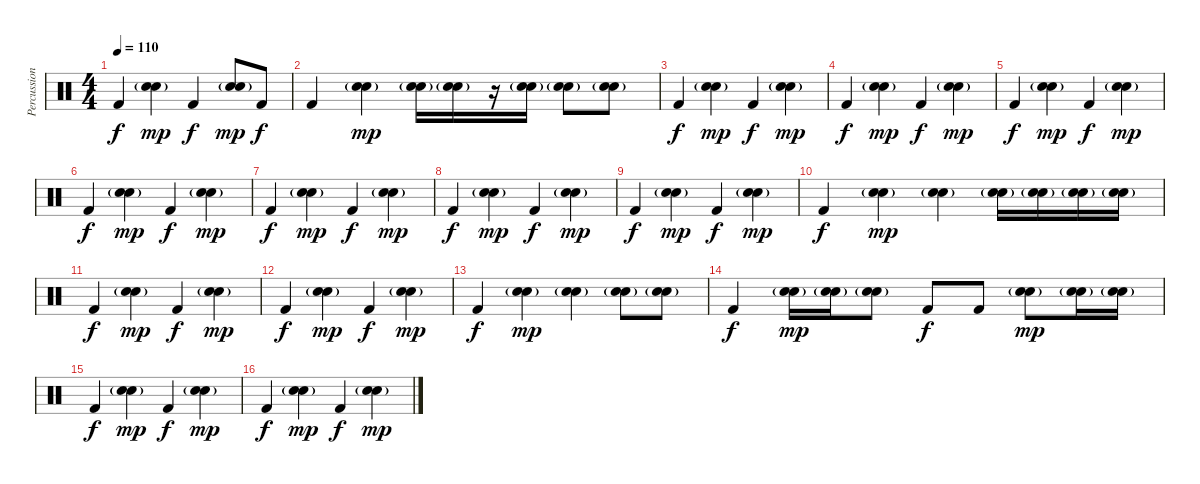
\track ("Percussion" "Percussion") {instrument percussion}
\staff {score}
\articulation defaults
\ts (4 4)
\tempo 110
\clef neutral
\ks c "Kick (hit) 2".4{dy f}
("Electric Snare (hit)" "Snare (hit) 2"{g}).4{dy mp} "Kick (hit) 2".4{dy f} ("Electric Snare (hit)" "Snare (hit) 2"{g}).8{dy mp} "Kick (hit) 2".8{dy f} |
"Kick (hit) 2".4 ("Electric Snare (hit)" "Snare (hit) 2"{g}).4{dy mp} ("Electric Snare (hit)" "Snare (hit) 2"{g}).16 ("Electric Snare (hit)"{g} "Snare (hit) 2"{g}).16 r.16 ("Electric Snare (hit)" "Snare (hit) 2"{g}).16 ("Electric Snare (hit)"{g} "Snare (hit) 2"{g}).8 ("Electric Snare (hit)" "Snare (hit) 2"{g}).8 |
"Kick (hit) 2".4{dy f} ("Electric Snare (hit)" "Snare (hit) 2"{g}).4{dy mp} "Kick (hit) 2".4{dy f} ("Electric Snare (hit)" "Snare (hit) 2"{g}).4{dy mp} |
"Kick (hit) 2".4{dy f} ("Electric Snare (hit)" "Snare (hit) 2"{g}).4{dy mp} "Kick (hit) 2".4{dy f} ("Electric Snare (hit)" "Snare (hit) 2"{g}).4{dy mp} |
"Kick (hit) 2".4{dy f} ("Electric Snare (hit)" "Snare (hit) 2"{g}).4{dy mp} "Kick (hit) 2".4{dy f} ("Electric Snare (hit)" "Snare (hit) 2"{g}).4{dy mp} |
"Kick (hit) 2".4{dy f} ("Electric Snare (hit)" "Snare (hit) 2"{g}).4{dy mp} "Kick (hit) 2".4{dy f} ("Electric Snare (hit)" "Snare (hit) 2"{g}).4{dy mp} |
"Kick (hit) 2".4{dy f} ("Electric Snare (hit)" "Snare (hit) 2"{g}).4{dy mp} "Kick (hit) 2".4{dy f} ("Electric Snare (hit)" "Snare (hit) 2"{g}).4{dy mp} |
"Kick (hit) 2".4{dy f} ("Electric Snare (hit)" "Snare (hit) 2"{g}).4{dy mp} "Kick (hit) 2".4{dy f} ("Electric Snare (hit)" "Snare (hit) 2"{g}).4{dy mp} |
"Kick (hit) 2".4{dy f} ("Electric Snare (hit)" "Snare (hit) 2"{g}).4{dy mp} "Kick (hit) 2".4{dy f} ("Electric Snare (hit)" "Snare (hit) 2"{g}).4{dy mp} |
"Kick (hit) 2".4{dy f} ("Electric Snare (hit)" "Snare (hit) 2"{g}).4{dy mp} ("Electric Snare (hit)"{g} "Snare (hit) 2"{g}).4 ("Electric Snare (hit)" "Snare (hit) 2"{g}).16 ("Electric Snare (hit)"{g} "Snare (hit) 2"{g}).16 ("Electric Snare (hit)" "Snare (hit) 2"{g}).16 ("Electric Snare (hit)"{g} "Snare (hit) 2"{g}).16 |
"Kick (hit) 2".4{dy f} ("Electric Snare (hit)" "Snare (hit) 2"{g}).4{dy mp} "Kick (hit) 2".4{dy f} ("Electric Snare (hit)" "Snare (hit) 2"{g}).4{dy mp} |
"Kick (hit) 2".4{dy f} ("Electric Snare (hit)" "Snare (hit) 2"{g}).4{dy mp} "Kick (hit) 2".4{dy f} ("Electric Snare (hit)" "Snare (hit) 2"{g}).4{dy mp} |
"Kick (hit) 2".4{dy f} ("Electric Snare (hit)" "Snare (hit) 2"{g}).4{dy mp} ("Electric Snare (hit)"{g} "Snare (hit) 2"{g}).4 ("Electric Snare (hit)" "Snare (hit) 2"{g}).8 ("Electric Snare (hit)"{g} "Snare (hit) 2"{g}).8 |
"Kick (hit) 2".4{dy f} ("Electric Snare (hit)" "Snare (hit) 2"{g}).16{dy mp} ("Electric Snare (hit)"{g} "Snare (hit) 2"{g}).16 ("Electric Snare (hit)" "Snare (hit) 2"{g}).8 "Kick (hit) 2".8{dy f} "Kick (hit) 2".8 ("Electric Snare (hit)" "Snare (hit) 2"{g}).8{dy mp} ("Electric Snare (hit)"{g} "Snare (hit) 2"{g}).16 ("Electric Snare (hit)" "Snare (hit) 2"{g}).16 |
"Kick (hit) 2".4{dy f} ("Electric Snare (hit)" "Snare (hit) 2"{g}).4{dy mp} "Kick (hit) 2".4{dy f} ("Electric Snare (hit)" "Snare (hit) 2"{g}).4{dy mp} |
"Kick (hit) 2".4{dy f} ("Electric Snare (hit)" "Snare (hit) 2"{g}).4{dy mp} "Kick (hit) 2".4{dy f} ("Electric Snare (hit)" "Snare (hit) 2"{g}).4{dy mp}
